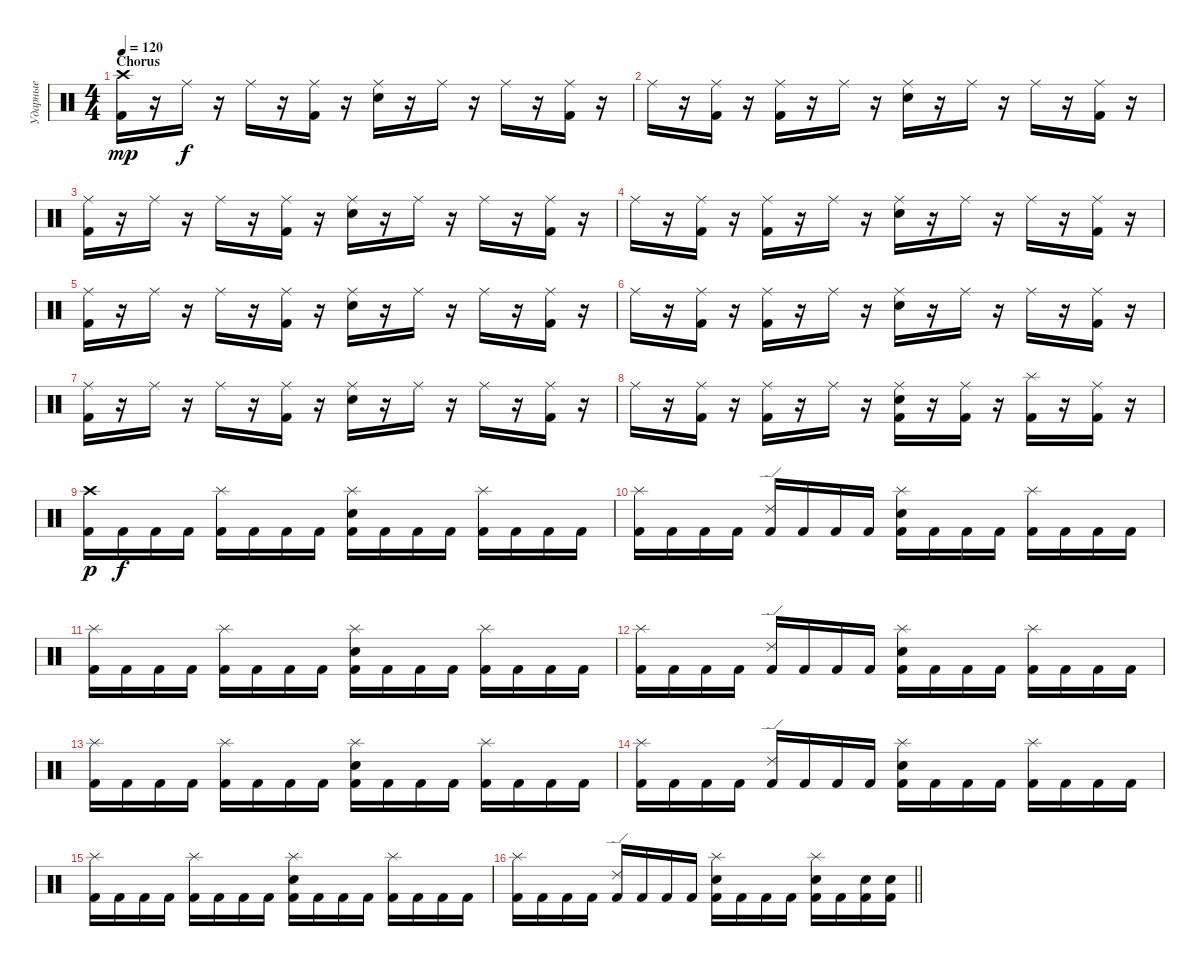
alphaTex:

\track ("Ударные" "Ударные") {instrument percussion}
\staff {score}
\articulation defaults
\ts (4 4)
\section ("" "Chorus")
\tempo 120
\clef neutral
\ks c
("Kick (hit) 2" "Crash high (hit)").16{dy mp} r.16 "Ride (middle)".16{dy f} r.16 "Ride (middle)".16 r.16 ("Kick (hit) 2" "Ride (middle)").16 r.16 ("Ride (middle)" "Snare (hit) 2").16 r.16 "Ride (middle)".16 r.16 "Ride (middle)".16 r.16 ("Kick (hit) 2" "Ride (middle)").16 r.16 |
"Ride (middle)".16 r.16 ("Kick (hit) 2" "Ride (middle)").16 r.16 ("Kick (hit) 2" "Ride (middle)").16 r.16 "Ride (middle)".16 r.16 ("Ride (middle)" "Snare (hit) 2").16 r.16 "Ride (middle)".16 r.16 "Ride (middle)".16 r.16 ("Kick (hit) 2" "Ride (middle)").16 r.16 |
("Kick (hit) 2" "Ride (middle)").16 r.16 "Ride (middle)".16 r.16 "Ride (middle)".16 r.16 ("Kick (hit) 2" "Ride (middle)").16 r.16 ("Ride (middle)" "Snare (hit) 2").16 r.16 "Ride (middle)".16 r.16 "Ride (middle)".16 r.16 ("Kick (hit) 2" "Ride (middle)").16 r.16 |
"Ride (middle)".16 r.16 ("Kick (hit) 2" "Ride (middle)").16 r.16 ("Kick (hit) 2" "Ride (middle)").16 r.16 "Ride (middle)".16 r.16 ("Ride (middle)" "Snare (hit) 2").16 r.16 "Ride (middle)".16 r.16 "Ride (middle)".16 r.16 ("Kick (hit) 2" "Ride (middle)").16 r.16 |
("Kick (hit) 2" "Ride (middle)").16 r.16 "Ride (middle)".16 r.16 "Ride (middle)".16 r.16 ("Kick (hit) 2" "Ride (middle)").16 r.16 ("Ride (middle)" "Snare (hit) 2").16 r.16 "Ride (middle)".16 r.16 "Ride (middle)".16 r.16 ("Kick (hit) 2" "Ride (middle)").16 r.16 |
"Ride (middle)".16 r.16 ("Kick (hit) 2" "Ride (middle)").16 r.16 ("Kick (hit) 2" "Ride (middle)").16 r.16 "Ride (middle)".16 r.16 ("Ride (middle)" "Snare (hit) 2").16 r.16 "Ride (middle)".16 r.16 "Ride (middle)".16 r.16 ("Kick (hit) 2" "Ride (middle)").16 r.16 |
("Kick (hit) 2" "Ride (middle)").16 r.16 "Ride (middle)".16 r.16 "Ride (middle)".16 r.16 ("Kick (hit) 2" "Ride (middle)").16 r.16 ("Ride (middle)" "Snare (hit) 2").16 r.16 "Ride (middle)".16 r.16 "Ride (middle)".16 r.16 ("Kick (hit) 2" "Ride (middle)").16 r.16 |
"Ride (middle)".16 r.16 ("Kick (hit) 2" "Ride (middle)").16 r.16 ("Kick (hit) 2" "Ride (middle)").16 r.16 "Ride (middle)".16 r.16 ("Kick (hit) 2" "Ride (middle)" "Snare (hit) 2").16 r.16 ("Kick (hit) 2" "Ride (middle)").16 r.16 ("Kick (hit) 2" "Splash (hit)").16 r.16 ("Kick (hit) 2" "Ride (middle)").16 r.16 |
("Kick (hit) 2" "Crash high (hit)").16{dy p} "Kick (hit) 2".16{dy f} "Kick (hit) 2".16 "Kick (hit) 2".16 ("Kick (hit) 2" "Splash (hit)").16 "Kick (hit) 2".16 "Kick (hit) 2".16 "Kick (hit) 2".16 ("Kick (hit) 2" "Splash (hit)" "Snare (hit) 2").16 "Kick (hit) 2".16 "Kick (hit) 2".16 "Kick (hit) 2".16 ("Kick (hit) 2" "Splash (hit)").16 "Kick (hit) 2".16 "Kick (hit) 2".16 "Kick (hit) 2".16 |
("Kick (hit) 2" "Splash (hit)").16 "Kick (hit) 2".16 "Kick (hit) 2".16 "Kick (hit) 2".16 ("Kick (hit) 2" "Ride (edge) 2").16 "Kick (hit) 2".16 "Kick (hit) 2".16 "Kick (hit) 2".16 ("Kick (hit) 2" "Splash (hit)" "Snare (hit) 2").16 "Kick (hit) 2".16 "Kick (hit) 2".16 "Kick (hit) 2".16 ("Kick (hit) 2" "Splash (hit)").16 "Kick (hit) 2".16 "Kick (hit) 2".16 "Kick (hit) 2".16 |
("Kick (hit) 2" "Splash (hit)").16 "Kick (hit) 2".16 "Kick (hit) 2".16 "Kick (hit) 2".16 ("Kick (hit) 2" "Splash (hit)").16 "Kick (hit) 2".16 "Kick (hit) 2".16 "Kick (hit) 2".16 ("Kick (hit) 2" "Splash (hit)" "Snare (hit) 2").16 "Kick (hit) 2".16 "Kick (hit) 2".16 "Kick (hit) 2".16 ("Kick (hit) 2" "Splash (hit)").16 "Kick (hit) 2".16 "Kick (hit) 2".16 "Kick (hit) 2".16 |
("Kick (hit) 2" "Splash (hit)").16 "Kick (hit) 2".16 "Kick (hit) 2".16 "Kick (hit) 2".16 ("Kick (hit) 2" "Ride (edge) 2").16 "Kick (hit) 2".16 "Kick (hit) 2".16 "Kick (hit) 2".16 ("Kick (hit) 2" "Splash (hit)" "Snare (hit) 2").16 "Kick (hit) 2".16 "Kick (hit) 2".16 "Kick (hit) 2".16 ("Kick (hit) 2" "Splash (hit)").16 "Kick (hit) 2".16 "Kick (hit) 2".16 "Kick (hit) 2".16 |
("Kick (hit) 2" "Splash (hit)").16 "Kick (hit) 2".16 "Kick (hit) 2".16 "Kick (hit) 2".16 ("Kick (hit) 2" "Splash (hit)").16 "Kick (hit) 2".16 "Kick (hit) 2".16 "Kick (hit) 2".16 ("Kick (hit) 2" "Splash (hit)" "Snare (hit) 2").16 "Kick (hit) 2".16 "Kick (hit) 2".16 "Kick (hit) 2".16 ("Kick (hit) 2" "Splash (hit)").16 "Kick (hit) 2".16 "Kick (hit) 2".16 "Kick (hit) 2".16 |
("Kick (hit) 2" "Splash (hit)").16 "Kick (hit) 2".16 "Kick (hit) 2".16 "Kick (hit) 2".16 ("Kick (hit) 2" "Ride (edge) 2").16 "Kick (hit) 2".16 "Kick (hit) 2".16 "Kick (hit) 2".16 ("Kick (hit) 2" "Splash (hit)" "Snare (hit) 2").16 "Kick (hit) 2".16 "Kick (hit) 2".16 "Kick (hit) 2".16 ("Kick (hit) 2" "Splash (hit)").16 "Kick (hit) 2".16 "Kick (hit) 2".16 "Kick (hit) 2".16 |
("Kick (hit) 2" "Splash (hit)").16 "Kick (hit) 2".16 "Kick (hit) 2".16 "Kick (hit) 2".16 ("Kick (hit) 2" "Splash (hit)").16 "Kick (hit) 2".16 "Kick (hit) 2".16 "Kick (hit) 2".16 ("Kick (hit) 2" "Splash (hit)" "Snare (hit) 2").16 "Kick (hit) 2".16 "Kick (hit) 2".16 "Kick (hit) 2".16 ("Kick (hit) 2" "Splash (hit)").16 "Kick (hit) 2".16 "Kick (hit) 2".16 "Kick (hit) 2".16 |
\barLineRight lightlight
("Kick (hit) 2" "Splash (hit)").16 "Kick (hit) 2".16 "Kick (hit) 2".16 "Kick (hit) 2".16 ("Kick (hit) 2" "Ride (edge) 2").16 "Kick (hit) 2".16 "Kick (hit) 2".16 "Kick (hit) 2".16 ("Kick (hit) 2" "Splash (hit)" "Snare (hit) 2").16 "Kick (hit) 2".16 "Kick (hit) 2".16 "Kick (hit) 2".16 ("Kick (hit) 2" "Splash (hit)" "Snare (hit) 2").16 "Kick (hit) 2".16 ("Kick (hit) 2" "Snare (hit) 2").16 ("Kick (hit) 2" "Snare (hit) 2").16
